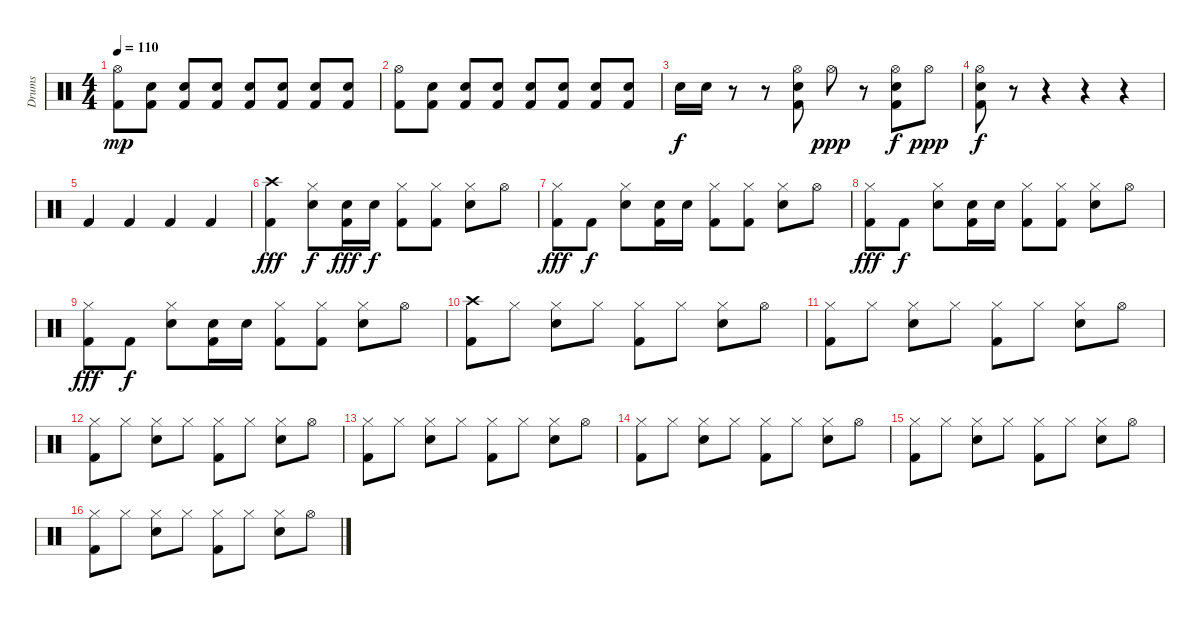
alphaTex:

\track ("Drums" "Drums") {instrument percussion}
\staff {score}
\articulation defaults
\ts (4 4)
\tempo 110
\clef neutral
\ks c
("Hi-Hat (open)" "Kick (hit) 2").8{dy mp} ("Kick (hit) 2" "Snare (hit) 2").8 ("Kick (hit) 2" "Snare (hit) 2").8 ("Kick (hit) 2" "Snare (hit) 2").8 ("Kick (hit) 2" "Snare (hit) 2").8 ("Kick (hit) 2" "Snare (hit) 2").8 ("Kick (hit) 2" "Snare (hit) 2").8 ("Kick (hit) 2" "Snare (hit) 2").8 |
("Hi-Hat (open)" "Kick (hit) 2").8 ("Kick (hit) 2" "Snare (hit) 2").8 ("Kick (hit) 2" "Snare (hit) 2").8 ("Kick (hit) 2" "Snare (hit) 2").8 ("Kick (hit) 2" "Snare (hit) 2").8 ("Kick (hit) 2" "Snare (hit) 2").8 ("Kick (hit) 2" "Snare (hit) 2").8 ("Kick (hit) 2" "Snare (hit) 2").8 |
"Snare (hit) 2".16{dy f} "Snare (hit) 2".16 r.8 r.8 ("Hi-Hat (open)" "Kick (hit) 2" "Snare (hit) 2").8 "Hi-Hat (open)".8{dy ppp} r.8 ("Hi-Hat (open)" "Kick (hit) 2" "Snare (hit) 2").8{dy f} "Hi-Hat (open)".8{dy ppp} |
("Hi-Hat (open)" "Kick (hit) 2" "Snare (hit) 2").8{dy f} r.8 r.4 r.4 r.4 |
"Kick (hit) 2".4 "Kick (hit) 2".4 "Kick (hit) 2".4 "Kick (hit) 2".4 |
("Crash high (hit)" "Kick (hit) 2").4{dy fff} ("Hi-Hat (closed)" "Snare (hit) 2").8{dy f} ("Snare (hit) 2" "Kick (hit) 2").16{dy fff} "Snare (hit) 2".16{dy f} ("Hi-Hat (closed)" "Kick (hit) 2").8 ("Hi-Hat (closed)" "Kick (hit) 2").8 ("Hi-Hat (closed)" "Snare (hit) 2").8 "Hi-Hat (open)".8 |
("Hi-Hat (closed)" "Kick (hit) 2").8{dy fff} "Kick (hit) 2".8{dy f} ("Hi-Hat (closed)" "Snare (hit) 2").8 ("Snare (hit) 2" "Kick (hit) 2").16 "Snare (hit) 2".16 ("Hi-Hat (closed)" "Kick (hit) 2").8 ("Hi-Hat (closed)" "Kick (hit) 2").8 ("Hi-Hat (closed)" "Snare (hit) 2").8 "Hi-Hat (open)".8 |
("Hi-Hat (closed)" "Kick (hit) 2").8{dy fff} "Kick (hit) 2".8{dy f} ("Hi-Hat (closed)" "Snare (hit) 2").8 ("Snare (hit) 2" "Kick (hit) 2").16 "Snare (hit) 2".16 ("Hi-Hat (closed)" "Kick (hit) 2").8 ("Hi-Hat (closed)" "Kick (hit) 2").8 ("Hi-Hat (closed)" "Snare (hit) 2").8 "Hi-Hat (open)".8 |
("Hi-Hat (closed)" "Kick (hit) 2").8{dy fff} "Kick (hit) 2".8{dy f} ("Hi-Hat (closed)" "Snare (hit) 2").8 ("Snare (hit) 2" "Kick (hit) 2").16 "Snare (hit) 2".16 ("Hi-Hat (closed)" "Kick (hit) 2").8 ("Hi-Hat (closed)" "Kick (hit) 2").8 ("Hi-Hat (closed)" "Snare (hit) 2").8 "Hi-Hat (open)".8 |
("Crash high (hit)" "Kick (hit) 2").8 "Hi-Hat (closed)".8 ("Hi-Hat (closed)" "Snare (hit) 2").8 "Hi-Hat (closed)".8 ("Hi-Hat (closed)" "Kick (hit) 2").8 "Hi-Hat (closed)".8 ("Hi-Hat (closed)" "Snare (hit) 2").8 "Hi-Hat (open)".8 |
("Hi-Hat (closed)" "Kick (hit) 2").8 "Hi-Hat (closed)".8 ("Hi-Hat (closed)" "Snare (hit) 2").8 "Hi-Hat (closed)".8 ("Hi-Hat (closed)" "Kick (hit) 2").8 "Hi-Hat (closed)".8 ("Hi-Hat (closed)" "Snare (hit) 2").8 "Hi-Hat (open)".8 |
("Hi-Hat (closed)" "Kick (hit) 2").8 "Hi-Hat (closed)".8 ("Hi-Hat (closed)" "Snare (hit) 2").8 "Hi-Hat (closed)".8 ("Hi-Hat (closed)" "Kick (hit) 2").8 "Hi-Hat (closed)".8 ("Hi-Hat (closed)" "Snare (hit) 2").8 "Hi-Hat (open)".8 |
("Hi-Hat (closed)" "Kick (hit) 2").8 "Hi-Hat (closed)".8 ("Hi-Hat (closed)" "Snare (hit) 2").8 "Hi-Hat (closed)".8 ("Hi-Hat (closed)" "Kick (hit) 2").8 "Hi-Hat (closed)".8 ("Hi-Hat (closed)" "Snare (hit) 2").8 "Hi-Hat (open)".8 |
("Hi-Hat (closed)" "Kick (hit) 2").8 "Hi-Hat (closed)".8 ("Hi-Hat (closed)" "Snare (hit) 2").8 "Hi-Hat (closed)".8 ("Hi-Hat (closed)" "Kick (hit) 2").8 "Hi-Hat (closed)".8 ("Hi-Hat (closed)" "Snare (hit) 2").8 "Hi-Hat (open)".8 |
("Hi-Hat (closed)" "Kick (hit) 2").8 "Hi-Hat (closed)".8 ("Hi-Hat (closed)" "Snare (hit) 2").8 "Hi-Hat (closed)".8 ("Hi-Hat (closed)" "Kick (hit) 2").8 "Hi-Hat (closed)".8 ("Hi-Hat (closed)" "Snare (hit) 2").8 "Hi-Hat (open)".8 |
("Hi-Hat (closed)" "Kick (hit) 2").8 "Hi-Hat (closed)".8 ("Hi-Hat (closed)" "Snare (hit) 2").8 "Hi-Hat (closed)".8 ("Hi-Hat (closed)" "Kick (hit) 2").8 "Hi-Hat (closed)".8 ("Hi-Hat (closed)" "Snare (hit) 2").8 "Hi-Hat (open)".8
